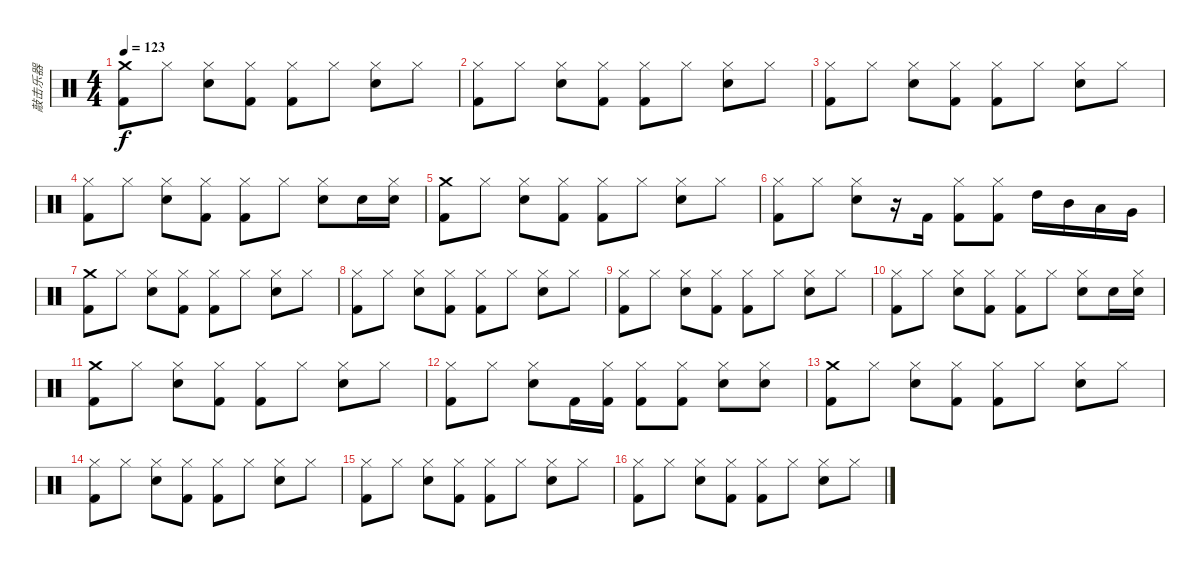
\track ("敲击乐器" "敲击乐器") {instrument percussion}
\staff {score}
\articulation defaults
\ts (4 4)
\tempo 123
\clef neutral
\ks c
("Crash medium (hit)" "Kick (hit) 2").8{dy f} "Hi-Hat (closed)".8 ("Hi-Hat (closed)" "Electric Snare (hit)").8 ("Hi-Hat (closed)" "Kick (hit) 2").8 ("Hi-Hat (closed)" "Kick (hit) 2").8 "Hi-Hat (closed)".8 ("Hi-Hat (closed)" "Electric Snare (hit)").8 "Hi-Hat (closed)".8 |
("Hi-Hat (closed)" "Kick (hit) 2").8 "Hi-Hat (closed)".8 ("Hi-Hat (closed)" "Electric Snare (hit)").8 ("Hi-Hat (closed)" "Kick (hit) 2").8 ("Hi-Hat (closed)" "Kick (hit) 2").8 "Hi-Hat (closed)".8 ("Hi-Hat (closed)" "Electric Snare (hit)").8 "Hi-Hat (closed)".8 |
("Hi-Hat (closed)" "Kick (hit) 2").8 "Hi-Hat (closed)".8 ("Hi-Hat (closed)" "Electric Snare (hit)").8 ("Hi-Hat (closed)" "Kick (hit) 2").8 ("Hi-Hat (closed)" "Kick (hit) 2").8 "Hi-Hat (closed)".8 ("Hi-Hat (closed)" "Electric Snare (hit)").8 "Hi-Hat (closed)".8 |
("Hi-Hat (closed)" "Kick (hit) 2").8 "Hi-Hat (closed)".8 ("Hi-Hat (closed)" "Electric Snare (hit)").8 ("Hi-Hat (closed)" "Kick (hit) 2").8 ("Hi-Hat (closed)" "Kick (hit) 2").8 "Hi-Hat (closed)".8 ("Hi-Hat (closed)" "Electric Snare (hit)").8 "Electric Snare (hit)".16 ("Hi-Hat (closed)" "Electric Snare (hit)").16 |
("Crash medium (hit)" "Kick (hit) 2").8 "Hi-Hat (closed)".8 ("Hi-Hat (closed)" "Electric Snare (hit)").8 ("Hi-Hat (closed)" "Kick (hit) 2").8 ("Hi-Hat (closed)" "Kick (hit) 2").8 "Hi-Hat (closed)".8 ("Hi-Hat (closed)" "Electric Snare (hit)").8 "Hi-Hat (closed)".8 |
("Hi-Hat (closed)" "Kick (hit) 2").8 "Hi-Hat (closed)".8 ("Hi-Hat (closed)" "Electric Snare (hit)").8 r.16 "Kick (hit) 2".16 ("Hi-Hat (closed)" "Kick (hit) 2").8 ("Hi-Hat (closed)" "Kick (hit) 2").8 "High Tom (hit)".16 "Mid Tom (hit)".16 "Low Tom (hit)".16 "Very Low Tom (hit)".16 |
("Crash medium (hit)" "Kick (hit) 2").8 "Hi-Hat (closed)".8 ("Hi-Hat (closed)" "Electric Snare (hit)").8 ("Hi-Hat (closed)" "Kick (hit) 2").8 ("Hi-Hat (closed)" "Kick (hit) 2").8 "Hi-Hat (closed)".8 ("Hi-Hat (closed)" "Electric Snare (hit)").8 "Hi-Hat (closed)".8 |
("Hi-Hat (closed)" "Kick (hit) 2").8 "Hi-Hat (closed)".8 ("Hi-Hat (closed)" "Electric Snare (hit)").8 ("Hi-Hat (closed)" "Kick (hit) 2").8 ("Hi-Hat (closed)" "Kick (hit) 2").8 "Hi-Hat (closed)".8 ("Hi-Hat (closed)" "Electric Snare (hit)").8 "Hi-Hat (closed)".8 |
("Hi-Hat (closed)" "Kick (hit) 2").8 "Hi-Hat (closed)".8 ("Hi-Hat (closed)" "Electric Snare (hit)").8 ("Hi-Hat (closed)" "Kick (hit) 2").8 ("Hi-Hat (closed)" "Kick (hit) 2").8 "Hi-Hat (closed)".8 ("Hi-Hat (closed)" "Electric Snare (hit)").8 "Hi-Hat (closed)".8 |
("Hi-Hat (closed)" "Kick (hit) 2").8 "Hi-Hat (closed)".8 ("Hi-Hat (closed)" "Electric Snare (hit)").8 ("Hi-Hat (closed)" "Kick (hit) 2").8 ("Hi-Hat (closed)" "Kick (hit) 2").8 "Hi-Hat (closed)".8 ("Hi-Hat (closed)" "Electric Snare (hit)").8 "Electric Snare (hit)".16 ("Hi-Hat (closed)" "Electric Snare (hit)").16 |
("Crash medium (hit)" "Kick (hit) 2").8 "Hi-Hat (closed)".8 ("Hi-Hat (closed)" "Electric Snare (hit)").8 ("Hi-Hat (closed)" "Kick (hit) 2").8 ("Hi-Hat (closed)" "Kick (hit) 2").8 "Hi-Hat (closed)".8 ("Hi-Hat (closed)" "Electric Snare (hit)").8 "Hi-Hat (closed)".8 |
("Hi-Hat (closed)" "Kick (hit) 2").8 "Hi-Hat (closed)".8 ("Hi-Hat (closed)" "Electric Snare (hit)").8 "Kick (hit) 2".16 ("Hi-Hat (closed)" "Kick (hit) 2").16 ("Hi-Hat (closed)" "Kick (hit) 2").8 ("Hi-Hat (closed)" "Kick (hit) 2").8 ("Hi-Hat (closed)" "Electric Snare (hit)").8 ("Hi-Hat (closed)" "Electric Snare (hit)").8 |
("Crash medium (hit)" "Kick (hit) 2").8 "Hi-Hat (closed)".8 ("Hi-Hat (closed)" "Electric Snare (hit)").8 ("Hi-Hat (closed)" "Kick (hit) 2").8 ("Hi-Hat (closed)" "Kick (hit) 2").8 "Hi-Hat (closed)".8 ("Hi-Hat (closed)" "Electric Snare (hit)").8 "Hi-Hat (closed)".8 |
("Hi-Hat (closed)" "Kick (hit) 2").8 "Hi-Hat (closed)".8 ("Hi-Hat (closed)" "Electric Snare (hit)").8 ("Hi-Hat (closed)" "Kick (hit) 2").8 ("Hi-Hat (closed)" "Kick (hit) 2").8 "Hi-Hat (closed)".8 ("Hi-Hat (closed)" "Electric Snare (hit)").8 "Hi-Hat (closed)".8 |
("Hi-Hat (closed)" "Kick (hit) 2").8 "Hi-Hat (closed)".8 ("Hi-Hat (closed)" "Electric Snare (hit)").8 ("Hi-Hat (closed)" "Kick (hit) 2").8 ("Hi-Hat (closed)" "Kick (hit) 2").8 "Hi-Hat (closed)".8 ("Hi-Hat (closed)" "Electric Snare (hit)").8 "Hi-Hat (closed)".8 |
("Hi-Hat (closed)" "Kick (hit) 2").8 "Hi-Hat (closed)".8 ("Hi-Hat (closed)" "Electric Snare (hit)").8 ("Hi-Hat (closed)" "Kick (hit) 2").8 ("Hi-Hat (closed)" "Kick (hit) 2").8 "Hi-Hat (closed)".8 ("Hi-Hat (closed)" "Electric Snare (hit)").8 "Hi-Hat (closed)".8
